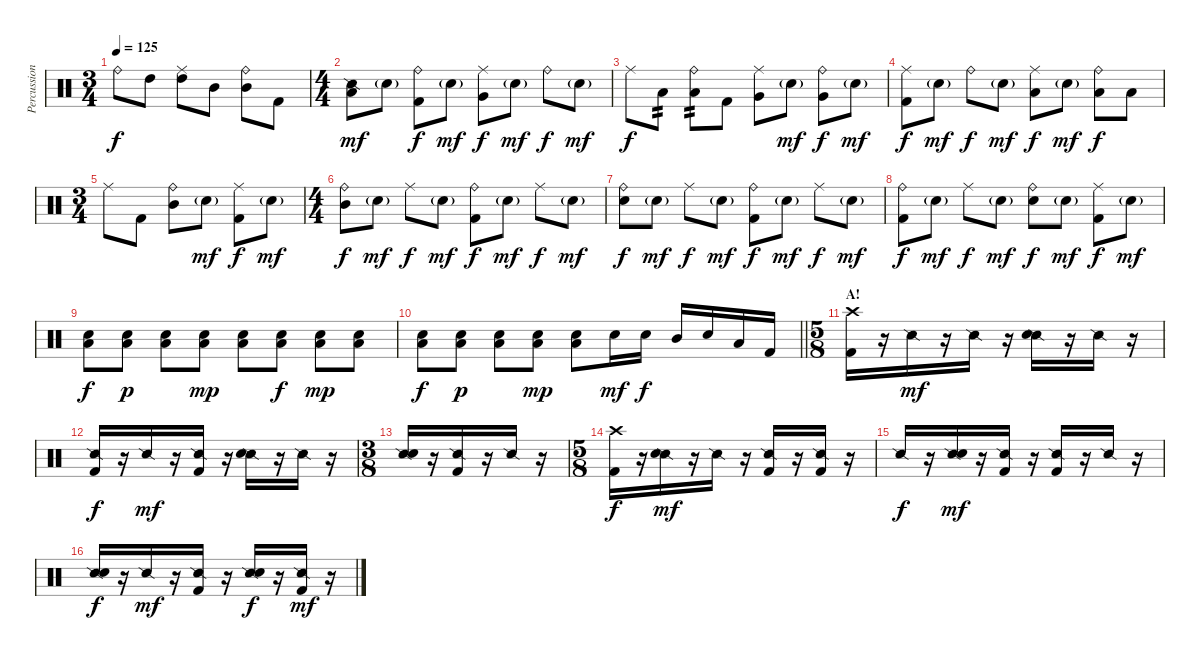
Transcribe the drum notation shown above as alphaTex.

\track ("Percussion" "Percussion") {instrument percussion}
\staff {score}
\articulation defaults
\ts (3 4)
\tempo 125
\clef neutral
\ks c "Ride (bell)".8{dy f} "High Tom (hit)".8
("Ride (middle)" "High Tom (hit)").8 "Mid Tom (hit)".8 ("Ride (bell)" "Mid Tom (hit)").8 "Kick (hit) 2".8 |
\ts (4 4)
("Snare (side stick) 2" "Low Tom (hit)").8{dy mf} "Snare (hit) 2"{g}.8 ("Ride (bell)" "Kick (hit) 2").8{dy f} "Snare (hit) 2"{g}.8{dy mf} ("Ride (middle)" "Very Low Tom (hit)").8{dy f} "Snare (hit) 2"{g}.8{dy mf} "Ride (bell)".8{dy f} "Snare (hit) 2"{g}.8{dy mf} |
"Ride (middle)".8{dy f} "Low Tom (hit)".8{tp 2} ("Ride (bell)" "Low Tom (hit)").8{tp 2} "Kick (hit) 2".8 ("Ride (middle)" "Very Low Tom (hit)").8 "Snare (hit) 2"{g}.8{dy mf} ("Ride (bell)" "Very Low Tom (hit)").8{dy f} "Snare (hit) 2"{g}.8{dy mf} |
("Ride (middle)" "Kick (hit) 2").8{dy f} "Snare (hit) 2"{g}.8{dy mf} "Ride (bell)".8{dy f} "Snare (hit) 2"{g}.8{dy mf} ("Ride (middle)" "Low Tom (hit)").8{dy f} "Snare (hit) 2"{g}.8{dy mf} ("Ride (bell)" "Low Tom (hit)").8{dy f} "Low Tom (hit)".8 |
\ts (3 4)
"Ride (middle)".8 "Kick (hit) 2".8 ("Ride (bell)" "Mid Tom (hit)").8 "Snare (hit) 2"{g}.8{dy mf} ("Ride (middle)" "Kick (hit) 2").8{dy f} "Snare (hit) 2"{g}.8{dy mf} |
\ts (4 4)
("Ride (bell)" "Mid Tom (hit)").8{dy f} "Snare (hit) 2"{g}.8{dy mf} "Ride (middle)".8{dy f} "Snare (hit) 2"{g}.8{dy mf} ("Ride (bell)" "Kick (hit) 2").8{dy f} "Snare (hit) 2"{g}.8{dy mf} "Ride (middle)".8{dy f} "Snare (hit) 2"{g}.8{dy mf} |
("Ride (bell)" "Snare (hit) 2").8{dy f} "Snare (hit) 2"{g}.8{dy mf} "Ride (middle)".8{dy f} "Snare (hit) 2"{g}.8{dy mf} ("Ride (bell)" "Kick (hit) 2").8{dy f} "Snare (hit) 2"{g}.8{dy mf} "Ride (middle)".8{dy f} "Snare (hit) 2"{g}.8{dy mf} |
("Ride (bell)" "Kick (hit) 2").8{dy f} "Snare (hit) 2"{g}.8{dy mf} "Ride (middle)".8{dy f} "Snare (hit) 2"{g}.8{dy mf} ("Ride (bell)" "Snare (hit) 2").8{dy f} "Snare (hit) 2"{g}.8{dy mf} ("Ride (middle)" "Kick (hit) 2").8{dy f} "Snare (hit) 2"{g}.8{dy mf} |
("Low Tom (hit)" "Snare (hit) 2").8{dy f} ("Low Tom (hit)" "Snare (hit) 2").8{dy p} ("Low Tom (hit)" "Snare (hit) 2").8 ("Low Tom (hit)" "Snare (hit) 2").8{dy mp} ("Low Tom (hit)" "Snare (hit) 2").8 ("Low Tom (hit)" "Snare (hit) 2").8{dy f} ("Low Tom (hit)" "Snare (hit) 2").8{dy mp} ("Low Tom (hit)" "Snare (hit) 2").8 |
\barLineRight lightlight
("Low Tom (hit)" "Snare (hit) 2").8{dy f} ("Low Tom (hit)" "Snare (hit) 2").8{dy p} ("Low Tom (hit)" "Snare (hit) 2").8 ("Low Tom (hit)" "Snare (hit) 2").8{dy mp} ("Low Tom (hit)" "Snare (hit) 2").8 "Snare (hit) 2".16{dy mf} "Snare (hit) 2".16{dy f} "Mid Tom (hit)".16 "Snare (hit) 2".16 "Low Tom (hit)".16 "Kick (hit) 2".16 |
\ts (5 8)
\section ("" "A!")
("Crash high (hit)" "Kick (hit) 2").16 r.16 "Snare (side stick) 2".16{dy mf} r.16 "Snare (side stick) 2".16 r.16 ("Snare (side stick) 2" "Snare (hit) 2").16 r.16 "Snare (side stick) 2".16 r.16 |
("Snare (side stick) 2" "Kick (hit) 2").16{dy f} r.16 "Snare (side stick) 2".16{dy mf} r.16 ("Snare (side stick) 2" "Kick (hit) 2").16 r.16 ("Snare (side stick) 2" "Snare (hit) 2").16 r.16 "Snare (side stick) 2".16 r.16 |
\ts (3 8)
("Snare (side stick) 2" "Snare (hit) 2").16 r.16 ("Snare (side stick) 2" "Kick (hit) 2").16 r.16 "Snare (side stick) 2".16 r.16 |
\ts (5 8)
("Crash high (hit)" "Kick (hit) 2").16{dy f} r.16 ("Snare (side stick) 2" "Snare (hit) 2").16{dy mf} r.16 "Snare (side stick) 2".16 r.16 ("Snare (side stick) 2" "Kick (hit) 2").16 r.16 ("Snare (side stick) 2" "Kick (hit) 2").16 r.16 |
"Snare (side stick) 2".16{dy f} r.16 ("Snare (side stick) 2" "Snare (hit) 2").16{dy mf} r.16 ("Snare (side stick) 2" "Kick (hit) 2").16 r.16 ("Snare (side stick) 2" "Kick (hit) 2").16 r.16 "Snare (side stick) 2".16 r.16 |
("Snare (side stick) 2" "Snare (hit) 2").16{dy f} r.16 "Snare (side stick) 2".16{dy mf} r.16 ("Snare (side stick) 2" "Kick (hit) 2").16 r.16 ("Snare (side stick) 2" "Snare (hit) 2").16{dy f} r.16 ("Snare (side stick) 2" "Kick (hit) 2").16{dy mf} r.16
